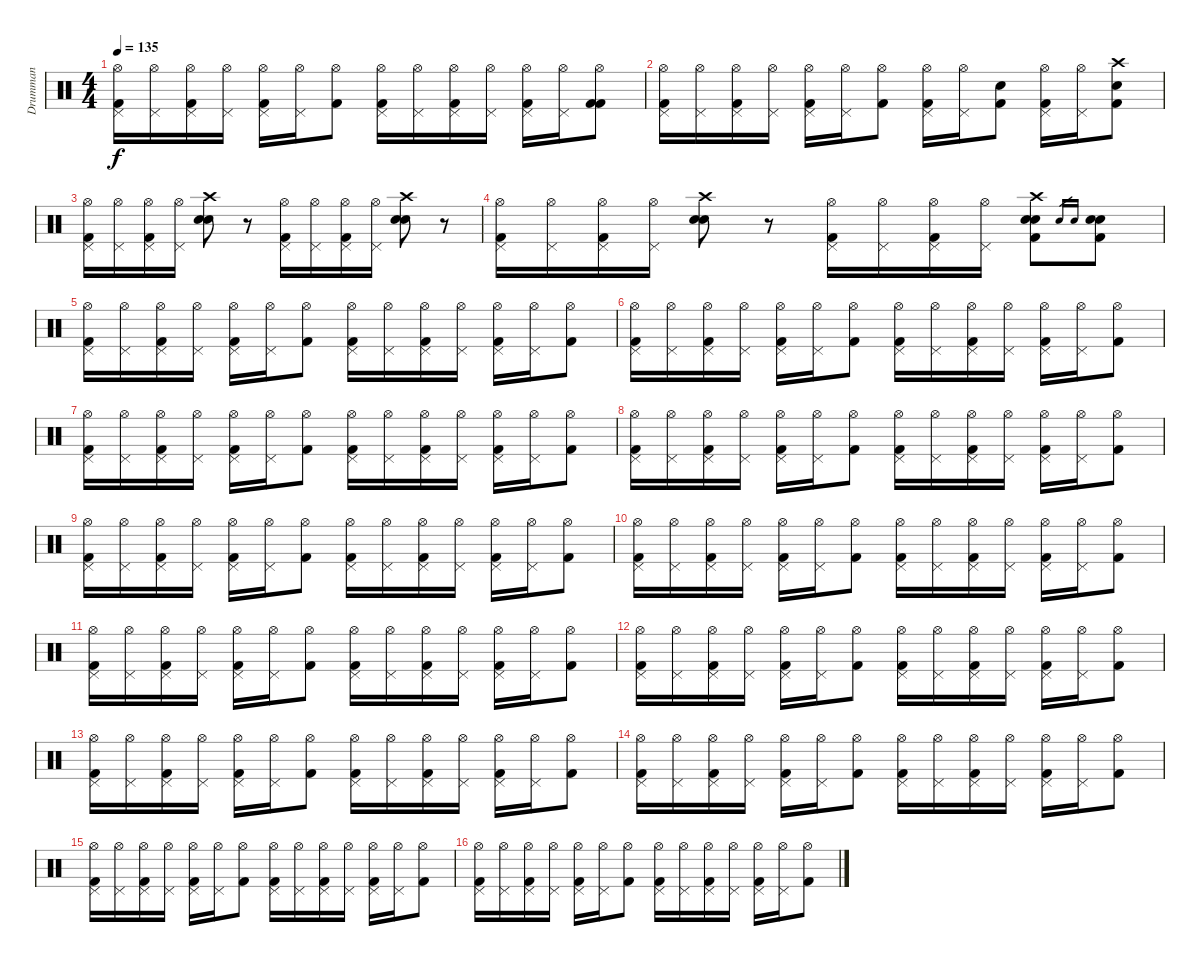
\track ("Drumman" "Drumman") {instrument percussion}
\staff {score}
\articulation defaults
\ts (4 4)
\tempo 135
\clef neutral
\ks c
("Hi-Hat (open)" "Pedal Hi-Hat (hit)" "Kick (hit) 2").16{dy f} ("Hi-Hat (open)" "Pedal Hi-Hat (hit)").16 ("Hi-Hat (open)" "Pedal Hi-Hat (hit)" "Kick (hit) 2").16 ("Hi-Hat (open)" "Pedal Hi-Hat (hit)").16 ("Hi-Hat (open)" "Pedal Hi-Hat (hit)" "Kick (hit) 2").16 ("Hi-Hat (open)" "Pedal Hi-Hat (hit)").16 ("Hi-Hat (open)" "Kick (hit) 2").8 ("Hi-Hat (open)" "Pedal Hi-Hat (hit)" "Kick (hit) 2").16 ("Hi-Hat (open)" "Pedal Hi-Hat (hit)").16 ("Hi-Hat (open)" "Pedal Hi-Hat (hit)" "Kick (hit) 2").16 ("Hi-Hat (open)" "Pedal Hi-Hat (hit)").16 ("Hi-Hat (open)" "Pedal Hi-Hat (hit)" "Kick (hit) 2").16 ("Hi-Hat (open)" "Pedal Hi-Hat (hit)").16 ("Hi-Hat (open)" "Kick (hit) 2" "Kick (hit) 2").8 |
("Hi-Hat (open)" "Pedal Hi-Hat (hit)" "Kick (hit) 2").16 ("Hi-Hat (open)" "Pedal Hi-Hat (hit)").16 ("Hi-Hat (open)" "Pedal Hi-Hat (hit)" "Kick (hit) 2").16 ("Hi-Hat (open)" "Pedal Hi-Hat (hit)").16 ("Hi-Hat (open)" "Pedal Hi-Hat (hit)" "Kick (hit) 2").16 ("Hi-Hat (open)" "Pedal Hi-Hat (hit)").16 ("Hi-Hat (open)" "Kick (hit) 2").8 ("Hi-Hat (open)" "Pedal Hi-Hat (hit)" "Kick (hit) 2").16 ("Hi-Hat (open)" "Pedal Hi-Hat (hit)").16 ("Snare (hit) 2" "Kick (hit) 2").8 ("Hi-Hat (open)" "Pedal Hi-Hat (hit)" "Kick (hit) 2").16 ("Hi-Hat (open)" "Pedal Hi-Hat (hit)").16 ("Crash high (hit)" "Snare (hit) 2" "Kick (hit) 2").8 |
("Hi-Hat (open)" "Pedal Hi-Hat (hit)" "Kick (hit) 2").16 ("Hi-Hat (open)" "Pedal Hi-Hat (hit)").16 ("Hi-Hat (open)" "Pedal Hi-Hat (hit)" "Kick (hit) 2").16 ("Hi-Hat (open)" "Pedal Hi-Hat (hit)").16 ("Snare (hit) 2" "Snare (hit) 2" "Crash high (hit)").8 r.8 ("Hi-Hat (open)" "Pedal Hi-Hat (hit)" "Kick (hit) 2").16 ("Hi-Hat (open)" "Pedal Hi-Hat (hit)").16 ("Hi-Hat (open)" "Pedal Hi-Hat (hit)" "Kick (hit) 2").16 ("Hi-Hat (open)" "Pedal Hi-Hat (hit)").16 ("Crash high (hit)" "Snare (hit) 2" "Snare (hit) 2").8 r.8 |
("Hi-Hat (open)" "Pedal Hi-Hat (hit)" "Kick (hit) 2").16 ("Hi-Hat (open)" "Pedal Hi-Hat (hit)").16 ("Hi-Hat (open)" "Pedal Hi-Hat (hit)" "Kick (hit) 2").16 ("Hi-Hat (open)" "Pedal Hi-Hat (hit)").16 ("Snare (hit) 2" "Snare (hit) 2" "Crash high (hit)").8 r.8 ("Hi-Hat (open)" "Pedal Hi-Hat (hit)" "Kick (hit) 2").16 ("Hi-Hat (open)" "Pedal Hi-Hat (hit)").16 ("Hi-Hat (open)" "Pedal Hi-Hat (hit)" "Kick (hit) 2").16 ("Hi-Hat (open)" "Pedal Hi-Hat (hit)").16 ("Crash high (hit)" "Snare (hit) 2" "Snare (hit) 2" "Kick (hit) 2").8 "Snare (hit) 2".16{gr} "Snare (hit) 2".16{gr} ("Snare (hit) 2" "Snare (hit) 2" "Kick (hit) 2").8 |
("Hi-Hat (open)" "Pedal Hi-Hat (hit)" "Kick (hit) 2").16 ("Hi-Hat (open)" "Pedal Hi-Hat (hit)").16 ("Hi-Hat (open)" "Pedal Hi-Hat (hit)" "Kick (hit) 2").16 ("Hi-Hat (open)" "Pedal Hi-Hat (hit)").16 ("Hi-Hat (open)" "Pedal Hi-Hat (hit)" "Kick (hit) 2").16 ("Hi-Hat (open)" "Pedal Hi-Hat (hit)").16 ("Hi-Hat (open)" "Kick (hit) 2").8 ("Hi-Hat (open)" "Pedal Hi-Hat (hit)" "Kick (hit) 2").16 ("Hi-Hat (open)" "Pedal Hi-Hat (hit)").16 ("Hi-Hat (open)" "Pedal Hi-Hat (hit)" "Kick (hit) 2").16 ("Hi-Hat (open)" "Pedal Hi-Hat (hit)").16 ("Hi-Hat (open)" "Pedal Hi-Hat (hit)" "Kick (hit) 2").16 ("Hi-Hat (open)" "Pedal Hi-Hat (hit)").16 ("Hi-Hat (open)" "Kick (hit) 2").8 |
("Hi-Hat (open)" "Pedal Hi-Hat (hit)" "Kick (hit) 2").16 ("Hi-Hat (open)" "Pedal Hi-Hat (hit)").16 ("Hi-Hat (open)" "Pedal Hi-Hat (hit)" "Kick (hit) 2").16 ("Hi-Hat (open)" "Pedal Hi-Hat (hit)").16 ("Hi-Hat (open)" "Pedal Hi-Hat (hit)" "Kick (hit) 2").16 ("Hi-Hat (open)" "Pedal Hi-Hat (hit)").16 ("Hi-Hat (open)" "Kick (hit) 2").8 ("Hi-Hat (open)" "Pedal Hi-Hat (hit)" "Kick (hit) 2").16 ("Hi-Hat (open)" "Pedal Hi-Hat (hit)").16 ("Hi-Hat (open)" "Pedal Hi-Hat (hit)" "Kick (hit) 2").16 ("Hi-Hat (open)" "Pedal Hi-Hat (hit)").16 ("Hi-Hat (open)" "Pedal Hi-Hat (hit)" "Kick (hit) 2").16 ("Hi-Hat (open)" "Pedal Hi-Hat (hit)").16 ("Hi-Hat (open)" "Kick (hit) 2").8 |
("Hi-Hat (open)" "Pedal Hi-Hat (hit)" "Kick (hit) 2").16 ("Hi-Hat (open)" "Pedal Hi-Hat (hit)").16 ("Hi-Hat (open)" "Pedal Hi-Hat (hit)" "Kick (hit) 2").16 ("Hi-Hat (open)" "Pedal Hi-Hat (hit)").16 ("Hi-Hat (open)" "Pedal Hi-Hat (hit)" "Kick (hit) 2").16 ("Hi-Hat (open)" "Pedal Hi-Hat (hit)").16 ("Hi-Hat (open)" "Kick (hit) 2").8 ("Hi-Hat (open)" "Pedal Hi-Hat (hit)" "Kick (hit) 2").16 ("Hi-Hat (open)" "Pedal Hi-Hat (hit)").16 ("Hi-Hat (open)" "Pedal Hi-Hat (hit)" "Kick (hit) 2").16 ("Hi-Hat (open)" "Pedal Hi-Hat (hit)").16 ("Hi-Hat (open)" "Pedal Hi-Hat (hit)" "Kick (hit) 2").16 ("Hi-Hat (open)" "Pedal Hi-Hat (hit)").16 ("Hi-Hat (open)" "Kick (hit) 2").8 |
("Hi-Hat (open)" "Pedal Hi-Hat (hit)" "Kick (hit) 2").16 ("Hi-Hat (open)" "Pedal Hi-Hat (hit)").16 ("Hi-Hat (open)" "Pedal Hi-Hat (hit)" "Kick (hit) 2").16 ("Hi-Hat (open)" "Pedal Hi-Hat (hit)").16 ("Hi-Hat (open)" "Pedal Hi-Hat (hit)" "Kick (hit) 2").16 ("Hi-Hat (open)" "Pedal Hi-Hat (hit)").16 ("Hi-Hat (open)" "Kick (hit) 2").8 ("Hi-Hat (open)" "Pedal Hi-Hat (hit)" "Kick (hit) 2").16 ("Hi-Hat (open)" "Pedal Hi-Hat (hit)").16 ("Hi-Hat (open)" "Pedal Hi-Hat (hit)" "Kick (hit) 2").16 ("Hi-Hat (open)" "Pedal Hi-Hat (hit)").16 ("Hi-Hat (open)" "Pedal Hi-Hat (hit)" "Kick (hit) 2").16 ("Hi-Hat (open)" "Pedal Hi-Hat (hit)").16 ("Hi-Hat (open)" "Kick (hit) 2").8 |
("Hi-Hat (open)" "Pedal Hi-Hat (hit)" "Kick (hit) 2").16 ("Hi-Hat (open)" "Pedal Hi-Hat (hit)").16 ("Hi-Hat (open)" "Pedal Hi-Hat (hit)" "Kick (hit) 2").16 ("Hi-Hat (open)" "Pedal Hi-Hat (hit)").16 ("Hi-Hat (open)" "Pedal Hi-Hat (hit)" "Kick (hit) 2").16 ("Hi-Hat (open)" "Pedal Hi-Hat (hit)").16 ("Hi-Hat (open)" "Kick (hit) 2").8 ("Hi-Hat (open)" "Pedal Hi-Hat (hit)" "Kick (hit) 2").16 ("Hi-Hat (open)" "Pedal Hi-Hat (hit)").16 ("Hi-Hat (open)" "Pedal Hi-Hat (hit)" "Kick (hit) 2").16 ("Hi-Hat (open)" "Pedal Hi-Hat (hit)").16 ("Hi-Hat (open)" "Pedal Hi-Hat (hit)" "Kick (hit) 2").16 ("Hi-Hat (open)" "Pedal Hi-Hat (hit)").16 ("Hi-Hat (open)" "Kick (hit) 2").8 |
("Hi-Hat (open)" "Pedal Hi-Hat (hit)" "Kick (hit) 2").16 ("Hi-Hat (open)" "Pedal Hi-Hat (hit)").16 ("Hi-Hat (open)" "Pedal Hi-Hat (hit)" "Kick (hit) 2").16 ("Hi-Hat (open)" "Pedal Hi-Hat (hit)").16 ("Hi-Hat (open)" "Pedal Hi-Hat (hit)" "Kick (hit) 2").16 ("Hi-Hat (open)" "Pedal Hi-Hat (hit)").16 ("Hi-Hat (open)" "Kick (hit) 2").8 ("Hi-Hat (open)" "Pedal Hi-Hat (hit)" "Kick (hit) 2").16 ("Hi-Hat (open)" "Pedal Hi-Hat (hit)").16 ("Hi-Hat (open)" "Pedal Hi-Hat (hit)" "Kick (hit) 2").16 ("Hi-Hat (open)" "Pedal Hi-Hat (hit)").16 ("Hi-Hat (open)" "Pedal Hi-Hat (hit)" "Kick (hit) 2").16 ("Hi-Hat (open)" "Pedal Hi-Hat (hit)").16 ("Hi-Hat (open)" "Kick (hit) 2").8 |
("Hi-Hat (open)" "Pedal Hi-Hat (hit)" "Kick (hit) 2").16 ("Hi-Hat (open)" "Pedal Hi-Hat (hit)").16 ("Hi-Hat (open)" "Pedal Hi-Hat (hit)" "Kick (hit) 2").16 ("Hi-Hat (open)" "Pedal Hi-Hat (hit)").16 ("Hi-Hat (open)" "Pedal Hi-Hat (hit)" "Kick (hit) 2").16 ("Hi-Hat (open)" "Pedal Hi-Hat (hit)").16 ("Hi-Hat (open)" "Kick (hit) 2").8 ("Hi-Hat (open)" "Pedal Hi-Hat (hit)" "Kick (hit) 2").16 ("Hi-Hat (open)" "Pedal Hi-Hat (hit)").16 ("Hi-Hat (open)" "Pedal Hi-Hat (hit)" "Kick (hit) 2").16 ("Hi-Hat (open)" "Pedal Hi-Hat (hit)").16 ("Hi-Hat (open)" "Pedal Hi-Hat (hit)" "Kick (hit) 2").16 ("Hi-Hat (open)" "Pedal Hi-Hat (hit)").16 ("Hi-Hat (open)" "Kick (hit) 2").8 |
("Hi-Hat (open)" "Pedal Hi-Hat (hit)" "Kick (hit) 2").16 ("Hi-Hat (open)" "Pedal Hi-Hat (hit)").16 ("Hi-Hat (open)" "Pedal Hi-Hat (hit)" "Kick (hit) 2").16 ("Hi-Hat (open)" "Pedal Hi-Hat (hit)").16 ("Hi-Hat (open)" "Pedal Hi-Hat (hit)" "Kick (hit) 2").16 ("Hi-Hat (open)" "Pedal Hi-Hat (hit)").16 ("Hi-Hat (open)" "Kick (hit) 2").8 ("Hi-Hat (open)" "Pedal Hi-Hat (hit)" "Kick (hit) 2").16 ("Hi-Hat (open)" "Pedal Hi-Hat (hit)").16 ("Hi-Hat (open)" "Pedal Hi-Hat (hit)" "Kick (hit) 2").16 ("Hi-Hat (open)" "Pedal Hi-Hat (hit)").16 ("Hi-Hat (open)" "Pedal Hi-Hat (hit)" "Kick (hit) 2").16 ("Hi-Hat (open)" "Pedal Hi-Hat (hit)").16 ("Hi-Hat (open)" "Kick (hit) 2").8 |
("Hi-Hat (open)" "Pedal Hi-Hat (hit)" "Kick (hit) 2").16 ("Hi-Hat (open)" "Pedal Hi-Hat (hit)").16 ("Hi-Hat (open)" "Pedal Hi-Hat (hit)" "Kick (hit) 2").16 ("Hi-Hat (open)" "Pedal Hi-Hat (hit)").16 ("Hi-Hat (open)" "Pedal Hi-Hat (hit)" "Kick (hit) 2").16 ("Hi-Hat (open)" "Pedal Hi-Hat (hit)").16 ("Hi-Hat (open)" "Kick (hit) 2").8 ("Hi-Hat (open)" "Pedal Hi-Hat (hit)" "Kick (hit) 2").16 ("Hi-Hat (open)" "Pedal Hi-Hat (hit)").16 ("Hi-Hat (open)" "Pedal Hi-Hat (hit)" "Kick (hit) 2").16 ("Hi-Hat (open)" "Pedal Hi-Hat (hit)").16 ("Hi-Hat (open)" "Pedal Hi-Hat (hit)" "Kick (hit) 2").16 ("Hi-Hat (open)" "Pedal Hi-Hat (hit)").16 ("Hi-Hat (open)" "Kick (hit) 2").8 |
("Hi-Hat (open)" "Pedal Hi-Hat (hit)" "Kick (hit) 2").16 ("Hi-Hat (open)" "Pedal Hi-Hat (hit)").16 ("Hi-Hat (open)" "Pedal Hi-Hat (hit)" "Kick (hit) 2").16 ("Hi-Hat (open)" "Pedal Hi-Hat (hit)").16 ("Hi-Hat (open)" "Pedal Hi-Hat (hit)" "Kick (hit) 2").16 ("Hi-Hat (open)" "Pedal Hi-Hat (hit)").16 ("Hi-Hat (open)" "Kick (hit) 2").8 ("Hi-Hat (open)" "Pedal Hi-Hat (hit)" "Kick (hit) 2").16 ("Hi-Hat (open)" "Pedal Hi-Hat (hit)").16 ("Hi-Hat (open)" "Pedal Hi-Hat (hit)" "Kick (hit) 2").16 ("Hi-Hat (open)" "Pedal Hi-Hat (hit)").16 ("Hi-Hat (open)" "Pedal Hi-Hat (hit)" "Kick (hit) 2").16 ("Hi-Hat (open)" "Pedal Hi-Hat (hit)").16 ("Hi-Hat (open)" "Kick (hit) 2").8 |
("Hi-Hat (open)" "Pedal Hi-Hat (hit)" "Kick (hit) 2").16 ("Hi-Hat (open)" "Pedal Hi-Hat (hit)").16 ("Hi-Hat (open)" "Pedal Hi-Hat (hit)" "Kick (hit) 2").16 ("Hi-Hat (open)" "Pedal Hi-Hat (hit)").16 ("Hi-Hat (open)" "Pedal Hi-Hat (hit)" "Kick (hit) 2").16 ("Hi-Hat (open)" "Pedal Hi-Hat (hit)").16 ("Hi-Hat (open)" "Kick (hit) 2").8 ("Hi-Hat (open)" "Pedal Hi-Hat (hit)" "Kick (hit) 2").16 ("Hi-Hat (open)" "Pedal Hi-Hat (hit)").16 ("Hi-Hat (open)" "Pedal Hi-Hat (hit)" "Kick (hit) 2").16 ("Hi-Hat (open)" "Pedal Hi-Hat (hit)").16 ("Hi-Hat (open)" "Pedal Hi-Hat (hit)" "Kick (hit) 2").16 ("Hi-Hat (open)" "Pedal Hi-Hat (hit)").16 ("Hi-Hat (open)" "Kick (hit) 2").8 |
("Hi-Hat (open)" "Pedal Hi-Hat (hit)" "Kick (hit) 2").16 ("Hi-Hat (open)" "Pedal Hi-Hat (hit)").16 ("Hi-Hat (open)" "Pedal Hi-Hat (hit)" "Kick (hit) 2").16 ("Hi-Hat (open)" "Pedal Hi-Hat (hit)").16 ("Hi-Hat (open)" "Pedal Hi-Hat (hit)" "Kick (hit) 2").16 ("Hi-Hat (open)" "Pedal Hi-Hat (hit)").16 ("Hi-Hat (open)" "Kick (hit) 2").8 ("Hi-Hat (open)" "Pedal Hi-Hat (hit)" "Kick (hit) 2").16 ("Hi-Hat (open)" "Pedal Hi-Hat (hit)").16 ("Hi-Hat (open)" "Pedal Hi-Hat (hit)" "Kick (hit) 2").16 ("Hi-Hat (open)" "Pedal Hi-Hat (hit)").16 ("Hi-Hat (open)" "Pedal Hi-Hat (hit)" "Kick (hit) 2").16 ("Hi-Hat (open)" "Pedal Hi-Hat (hit)").16 ("Hi-Hat (open)" "Kick (hit) 2").8
